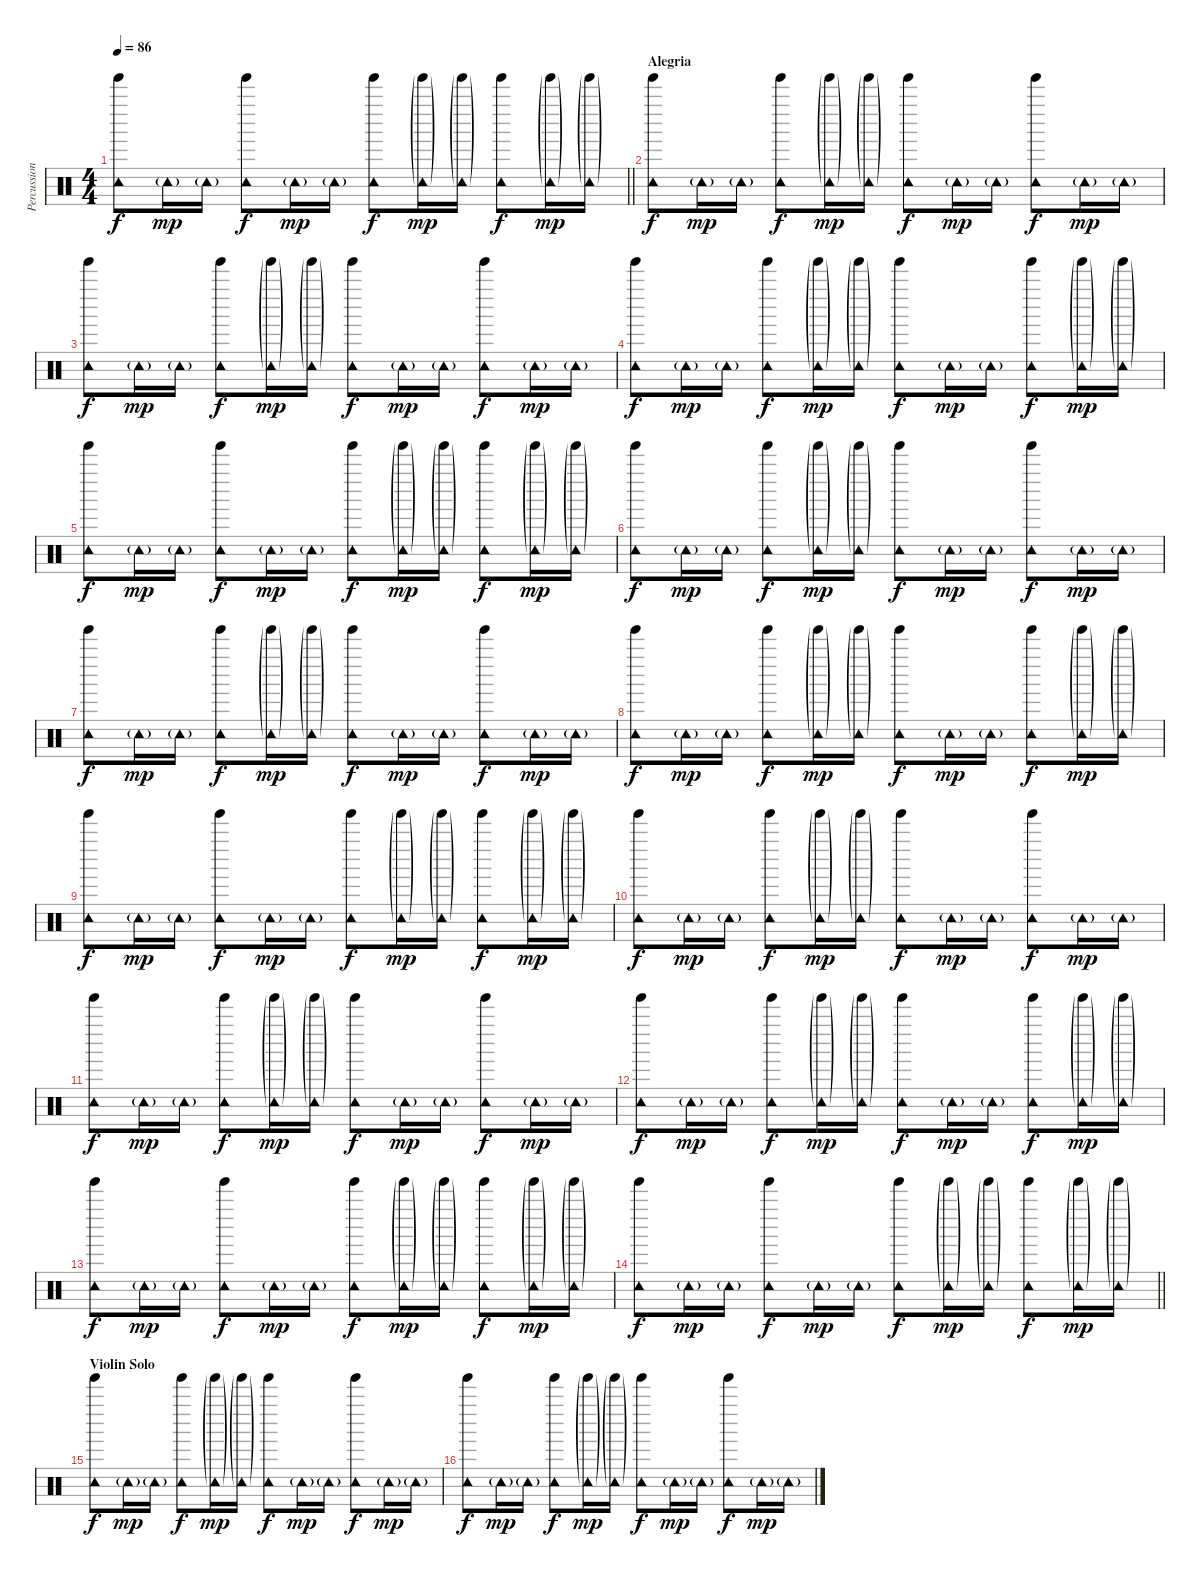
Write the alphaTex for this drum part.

\track ("Percussion 1" "Percussion") {instrument percussion}
\staff {score}
\articulation defaults
\ts (4 4)
\tempo 86
\clef neutral
\barLineRight lightlight
\ks c
("Tinkle Bell (hit)" "Tambourine (hit)").8{dy f} "Tambourine (hit)"{g}.16{dy mp} "Tambourine (hit)"{g}.16 ("Tinkle Bell (hit)" "Tambourine (hit)").8{dy f} "Tambourine (hit)"{g}.16{dy mp} "Tambourine (hit)"{g}.16 ("Tinkle Bell (hit)" "Tambourine (hit)").8{dy f} ("Tinkle Bell (hit)"{g} "Tambourine (hit)"{g}).16{dy mp} ("Tinkle Bell (hit)"{g} "Tambourine (hit)"{g}).16 ("Tinkle Bell (hit)" "Tambourine (hit)").8{dy f} ("Tinkle Bell (hit)"{g} "Tambourine (hit)"{g}).16{dy mp} ("Tinkle Bell (hit)"{g} "Tambourine (hit)"{g}).16 |
\section ("" "Alegria")
("Tinkle Bell (hit)" "Tambourine (hit)").8{dy f} "Tambourine (hit)"{g}.16{dy mp} "Tambourine (hit)"{g}.16 ("Tinkle Bell (hit)" "Tambourine (hit)").8{dy f} ("Tinkle Bell (hit)"{g} "Tambourine (hit)"{g}).16{dy mp} ("Tinkle Bell (hit)"{g} "Tambourine (hit)"{g}).16 ("Tinkle Bell (hit)" "Tambourine (hit)").8{dy f} "Tambourine (hit)"{g}.16{dy mp} "Tambourine (hit)"{g}.16 ("Tinkle Bell (hit)" "Tambourine (hit)").8{dy f} "Tambourine (hit)"{g}.16{dy mp} "Tambourine (hit)"{g}.16 |
("Tinkle Bell (hit)" "Tambourine (hit)").8{dy f} "Tambourine (hit)"{g}.16{dy mp} "Tambourine (hit)"{g}.16 ("Tinkle Bell (hit)" "Tambourine (hit)").8{dy f} ("Tinkle Bell (hit)"{g} "Tambourine (hit)"{g}).16{dy mp} ("Tinkle Bell (hit)"{g} "Tambourine (hit)"{g}).16 ("Tinkle Bell (hit)" "Tambourine (hit)").8{dy f} "Tambourine (hit)"{g}.16{dy mp} "Tambourine (hit)"{g}.16 ("Tinkle Bell (hit)" "Tambourine (hit)").8{dy f} "Tambourine (hit)"{g}.16{dy mp} "Tambourine (hit)"{g}.16 |
("Tinkle Bell (hit)" "Tambourine (hit)").8{dy f} "Tambourine (hit)"{g}.16{dy mp} "Tambourine (hit)"{g}.16 ("Tinkle Bell (hit)" "Tambourine (hit)").8{dy f} ("Tinkle Bell (hit)"{g} "Tambourine (hit)"{g}).16{dy mp} ("Tinkle Bell (hit)"{g} "Tambourine (hit)"{g}).16 ("Tinkle Bell (hit)" "Tambourine (hit)").8{dy f} "Tambourine (hit)"{g}.16{dy mp} "Tambourine (hit)"{g}.16 ("Tinkle Bell (hit)" "Tambourine (hit)").8{dy f} ("Tinkle Bell (hit)"{g} "Tambourine (hit)"{g}).16{dy mp} ("Tinkle Bell (hit)"{g} "Tambourine (hit)"{g}).16 |
("Tinkle Bell (hit)" "Tambourine (hit)").8{dy f} "Tambourine (hit)"{g}.16{dy mp} "Tambourine (hit)"{g}.16 ("Tinkle Bell (hit)" "Tambourine (hit)").8{dy f} "Tambourine (hit)"{g}.16{dy mp} "Tambourine (hit)"{g}.16 ("Tinkle Bell (hit)" "Tambourine (hit)").8{dy f} ("Tinkle Bell (hit)"{g} "Tambourine (hit)"{g}).16{dy mp} ("Tinkle Bell (hit)"{g} "Tambourine (hit)"{g}).16 ("Tinkle Bell (hit)" "Tambourine (hit)").8{dy f} ("Tinkle Bell (hit)"{g} "Tambourine (hit)"{g}).16{dy mp} ("Tinkle Bell (hit)"{g} "Tambourine (hit)"{g}).16 |
("Tinkle Bell (hit)" "Tambourine (hit)").8{dy f} "Tambourine (hit)"{g}.16{dy mp} "Tambourine (hit)"{g}.16 ("Tinkle Bell (hit)" "Tambourine (hit)").8{dy f} ("Tinkle Bell (hit)"{g} "Tambourine (hit)"{g}).16{dy mp} ("Tinkle Bell (hit)"{g} "Tambourine (hit)"{g}).16 ("Tinkle Bell (hit)" "Tambourine (hit)").8{dy f} "Tambourine (hit)"{g}.16{dy mp} "Tambourine (hit)"{g}.16 ("Tinkle Bell (hit)" "Tambourine (hit)").8{dy f} "Tambourine (hit)"{g}.16{dy mp} "Tambourine (hit)"{g}.16 |
("Tinkle Bell (hit)" "Tambourine (hit)").8{dy f} "Tambourine (hit)"{g}.16{dy mp} "Tambourine (hit)"{g}.16 ("Tinkle Bell (hit)" "Tambourine (hit)").8{dy f} ("Tinkle Bell (hit)"{g} "Tambourine (hit)"{g}).16{dy mp} ("Tinkle Bell (hit)"{g} "Tambourine (hit)"{g}).16 ("Tinkle Bell (hit)" "Tambourine (hit)").8{dy f} "Tambourine (hit)"{g}.16{dy mp} "Tambourine (hit)"{g}.16 ("Tinkle Bell (hit)" "Tambourine (hit)").8{dy f} "Tambourine (hit)"{g}.16{dy mp} "Tambourine (hit)"{g}.16 |
("Tinkle Bell (hit)" "Tambourine (hit)").8{dy f} "Tambourine (hit)"{g}.16{dy mp} "Tambourine (hit)"{g}.16 ("Tinkle Bell (hit)" "Tambourine (hit)").8{dy f} ("Tinkle Bell (hit)"{g} "Tambourine (hit)"{g}).16{dy mp} ("Tinkle Bell (hit)"{g} "Tambourine (hit)"{g}).16 ("Tinkle Bell (hit)" "Tambourine (hit)").8{dy f} "Tambourine (hit)"{g}.16{dy mp} "Tambourine (hit)"{g}.16 ("Tinkle Bell (hit)" "Tambourine (hit)").8{dy f} ("Tinkle Bell (hit)"{g} "Tambourine (hit)"{g}).16{dy mp} ("Tinkle Bell (hit)"{g} "Tambourine (hit)"{g}).16 |
("Tinkle Bell (hit)" "Tambourine (hit)").8{dy f} "Tambourine (hit)"{g}.16{dy mp} "Tambourine (hit)"{g}.16 ("Tinkle Bell (hit)" "Tambourine (hit)").8{dy f} "Tambourine (hit)"{g}.16{dy mp} "Tambourine (hit)"{g}.16 ("Tinkle Bell (hit)" "Tambourine (hit)").8{dy f} ("Tinkle Bell (hit)"{g} "Tambourine (hit)"{g}).16{dy mp} ("Tinkle Bell (hit)"{g} "Tambourine (hit)"{g}).16 ("Tinkle Bell (hit)" "Tambourine (hit)").8{dy f} ("Tinkle Bell (hit)"{g} "Tambourine (hit)"{g}).16{dy mp} ("Tinkle Bell (hit)"{g} "Tambourine (hit)"{g}).16 |
("Tinkle Bell (hit)" "Tambourine (hit)").8{dy f} "Tambourine (hit)"{g}.16{dy mp} "Tambourine (hit)"{g}.16 ("Tinkle Bell (hit)" "Tambourine (hit)").8{dy f} ("Tinkle Bell (hit)"{g} "Tambourine (hit)"{g}).16{dy mp} ("Tinkle Bell (hit)"{g} "Tambourine (hit)"{g}).16 ("Tinkle Bell (hit)" "Tambourine (hit)").8{dy f} "Tambourine (hit)"{g}.16{dy mp} "Tambourine (hit)"{g}.16 ("Tinkle Bell (hit)" "Tambourine (hit)").8{dy f} "Tambourine (hit)"{g}.16{dy mp} "Tambourine (hit)"{g}.16 |
("Tinkle Bell (hit)" "Tambourine (hit)").8{dy f} "Tambourine (hit)"{g}.16{dy mp} "Tambourine (hit)"{g}.16 ("Tinkle Bell (hit)" "Tambourine (hit)").8{dy f} ("Tinkle Bell (hit)"{g} "Tambourine (hit)"{g}).16{dy mp} ("Tinkle Bell (hit)"{g} "Tambourine (hit)"{g}).16 ("Tinkle Bell (hit)" "Tambourine (hit)").8{dy f} "Tambourine (hit)"{g}.16{dy mp} "Tambourine (hit)"{g}.16 ("Tinkle Bell (hit)" "Tambourine (hit)").8{dy f} "Tambourine (hit)"{g}.16{dy mp} "Tambourine (hit)"{g}.16 |
("Tinkle Bell (hit)" "Tambourine (hit)").8{dy f} "Tambourine (hit)"{g}.16{dy mp} "Tambourine (hit)"{g}.16 ("Tinkle Bell (hit)" "Tambourine (hit)").8{dy f} ("Tinkle Bell (hit)"{g} "Tambourine (hit)"{g}).16{dy mp} ("Tinkle Bell (hit)"{g} "Tambourine (hit)"{g}).16 ("Tinkle Bell (hit)" "Tambourine (hit)").8{dy f} "Tambourine (hit)"{g}.16{dy mp} "Tambourine (hit)"{g}.16 ("Tinkle Bell (hit)" "Tambourine (hit)").8{dy f} ("Tinkle Bell (hit)"{g} "Tambourine (hit)"{g}).16{dy mp} ("Tinkle Bell (hit)"{g} "Tambourine (hit)"{g}).16 |
("Tinkle Bell (hit)" "Tambourine (hit)").8{dy f} "Tambourine (hit)"{g}.16{dy mp} "Tambourine (hit)"{g}.16 ("Tinkle Bell (hit)" "Tambourine (hit)").8{dy f} "Tambourine (hit)"{g}.16{dy mp} "Tambourine (hit)"{g}.16 ("Tinkle Bell (hit)" "Tambourine (hit)").8{dy f} ("Tinkle Bell (hit)"{g} "Tambourine (hit)"{g}).16{dy mp} ("Tinkle Bell (hit)"{g} "Tambourine (hit)"{g}).16 ("Tinkle Bell (hit)" "Tambourine (hit)").8{dy f} ("Tinkle Bell (hit)"{g} "Tambourine (hit)"{g}).16{dy mp} ("Tinkle Bell (hit)"{g} "Tambourine (hit)"{g}).16 |
\barLineRight lightlight
("Tinkle Bell (hit)" "Tambourine (hit)").8{dy f} "Tambourine (hit)"{g}.16{dy mp} "Tambourine (hit)"{g}.16 ("Tinkle Bell (hit)" "Tambourine (hit)").8{dy f} "Tambourine (hit)"{g}.16{dy mp} "Tambourine (hit)"{g}.16 ("Tinkle Bell (hit)" "Tambourine (hit)").8{dy f} ("Tinkle Bell (hit)"{g} "Tambourine (hit)"{g}).16{dy mp} ("Tinkle Bell (hit)"{g} "Tambourine (hit)"{g}).16 ("Tinkle Bell (hit)" "Tambourine (hit)").8{dy f} ("Tinkle Bell (hit)"{g} "Tambourine (hit)"{g}).16{dy mp} ("Tinkle Bell (hit)"{g} "Tambourine (hit)"{g}).16 |
\section ("" "Violin Solo")
("Tinkle Bell (hit)" "Tambourine (hit)").8{dy f} "Tambourine (hit)"{g}.16{dy mp} "Tambourine (hit)"{g}.16 ("Tinkle Bell (hit)" "Tambourine (hit)").8{dy f} ("Tinkle Bell (hit)"{g} "Tambourine (hit)"{g}).16{dy mp} ("Tinkle Bell (hit)"{g} "Tambourine (hit)"{g}).16 ("Tinkle Bell (hit)" "Tambourine (hit)").8{dy f} "Tambourine (hit)"{g}.16{dy mp} "Tambourine (hit)"{g}.16 ("Tinkle Bell (hit)" "Tambourine (hit)").8{dy f} "Tambourine (hit)"{g}.16{dy mp} "Tambourine (hit)"{g}.16 |
("Tinkle Bell (hit)" "Tambourine (hit)").8{dy f} "Tambourine (hit)"{g}.16{dy mp} "Tambourine (hit)"{g}.16 ("Tinkle Bell (hit)" "Tambourine (hit)").8{dy f} ("Tinkle Bell (hit)"{g} "Tambourine (hit)"{g}).16{dy mp} ("Tinkle Bell (hit)"{g} "Tambourine (hit)"{g}).16 ("Tinkle Bell (hit)" "Tambourine (hit)").8{dy f} "Tambourine (hit)"{g}.16{dy mp} "Tambourine (hit)"{g}.16 ("Tinkle Bell (hit)" "Tambourine (hit)").8{dy f} "Tambourine (hit)"{g}.16{dy mp} "Tambourine (hit)"{g}.16
